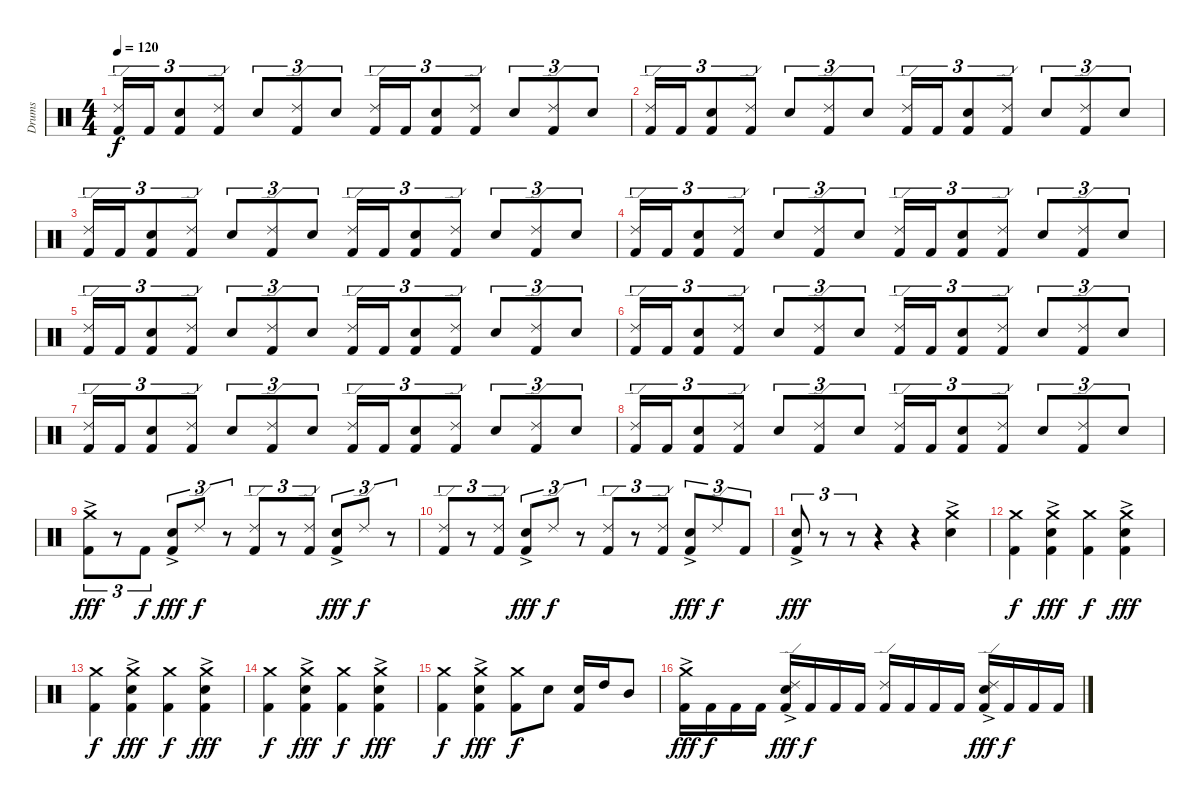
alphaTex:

\track ("Drums" "Drums") {instrument percussion}
\staff {score}
\articulation defaults
\ts (4 4)
\tempo 120
\clef neutral
\ks c
("Ride (edge) 2" "Kick (hit) 2").16{tu (3 2) dy f} "Kick (hit) 2".16{tu (3 2)} ("Electric Snare (hit)" "Kick (hit) 2").8{tu (3 2)} ("Ride (edge) 2" "Kick (hit) 2").8{tu (3 2)} "Electric Snare (hit)".8{tu (3 2)} ("Ride (edge) 2" "Kick (hit) 2").8{tu (3 2)} "Electric Snare (hit)".8{tu (3 2)} ("Ride (edge) 2" "Kick (hit) 2").16{tu (3 2)} "Kick (hit) 2".16{tu (3 2)} ("Electric Snare (hit)" "Kick (hit) 2").8{tu (3 2)} ("Ride (edge) 2" "Kick (hit) 2").8{tu (3 2)} "Electric Snare (hit)".8{tu (3 2)} ("Ride (edge) 2" "Kick (hit) 2").8{tu (3 2)} "Electric Snare (hit)".8{tu (3 2)} |
("Ride (edge) 2" "Kick (hit) 2").16{tu (3 2)} "Kick (hit) 2".16{tu (3 2)} ("Electric Snare (hit)" "Kick (hit) 2").8{tu (3 2)} ("Ride (edge) 2" "Kick (hit) 2").8{tu (3 2)} "Electric Snare (hit)".8{tu (3 2)} ("Ride (edge) 2" "Kick (hit) 2").8{tu (3 2)} "Electric Snare (hit)".8{tu (3 2)} ("Ride (edge) 2" "Kick (hit) 2").16{tu (3 2)} "Kick (hit) 2".16{tu (3 2)} ("Electric Snare (hit)" "Kick (hit) 2").8{tu (3 2)} ("Ride (edge) 2" "Kick (hit) 2").8{tu (3 2)} "Electric Snare (hit)".8{tu (3 2)} ("Ride (edge) 2" "Kick (hit) 2").8{tu (3 2)} "Electric Snare (hit)".8{tu (3 2)} |
("Ride (edge) 2" "Kick (hit) 2").16{tu (3 2)} "Kick (hit) 2".16{tu (3 2)} ("Electric Snare (hit)" "Kick (hit) 2").8{tu (3 2)} ("Ride (edge) 2" "Kick (hit) 2").8{tu (3 2)} "Electric Snare (hit)".8{tu (3 2)} ("Ride (edge) 2" "Kick (hit) 2").8{tu (3 2)} "Electric Snare (hit)".8{tu (3 2)} ("Ride (edge) 2" "Kick (hit) 2").16{tu (3 2)} "Kick (hit) 2".16{tu (3 2)} ("Electric Snare (hit)" "Kick (hit) 2").8{tu (3 2)} ("Ride (edge) 2" "Kick (hit) 2").8{tu (3 2)} "Electric Snare (hit)".8{tu (3 2)} ("Ride (edge) 2" "Kick (hit) 2").8{tu (3 2)} "Electric Snare (hit)".8{tu (3 2)} |
("Ride (edge) 2" "Kick (hit) 2").16{tu (3 2)} "Kick (hit) 2".16{tu (3 2)} ("Electric Snare (hit)" "Kick (hit) 2").8{tu (3 2)} ("Ride (edge) 2" "Kick (hit) 2").8{tu (3 2)} "Electric Snare (hit)".8{tu (3 2)} ("Ride (edge) 2" "Kick (hit) 2").8{tu (3 2)} "Electric Snare (hit)".8{tu (3 2)} ("Ride (edge) 2" "Kick (hit) 2").16{tu (3 2)} "Kick (hit) 2".16{tu (3 2)} ("Electric Snare (hit)" "Kick (hit) 2").8{tu (3 2)} ("Ride (edge) 2" "Kick (hit) 2").8{tu (3 2)} "Electric Snare (hit)".8{tu (3 2)} ("Ride (edge) 2" "Kick (hit) 2").8{tu (3 2)} "Electric Snare (hit)".8{tu (3 2)} |
("Ride (edge) 2" "Kick (hit) 2").16{tu (3 2)} "Kick (hit) 2".16{tu (3 2)} ("Electric Snare (hit)" "Kick (hit) 2").8{tu (3 2)} ("Ride (edge) 2" "Kick (hit) 2").8{tu (3 2)} "Electric Snare (hit)".8{tu (3 2)} ("Ride (edge) 2" "Kick (hit) 2").8{tu (3 2)} "Electric Snare (hit)".8{tu (3 2)} ("Ride (edge) 2" "Kick (hit) 2").16{tu (3 2)} "Kick (hit) 2".16{tu (3 2)} ("Electric Snare (hit)" "Kick (hit) 2").8{tu (3 2)} ("Ride (edge) 2" "Kick (hit) 2").8{tu (3 2)} "Electric Snare (hit)".8{tu (3 2)} ("Ride (edge) 2" "Kick (hit) 2").8{tu (3 2)} "Electric Snare (hit)".8{tu (3 2)} |
("Ride (edge) 2" "Kick (hit) 2").16{tu (3 2)} "Kick (hit) 2".16{tu (3 2)} ("Electric Snare (hit)" "Kick (hit) 2").8{tu (3 2)} ("Ride (edge) 2" "Kick (hit) 2").8{tu (3 2)} "Electric Snare (hit)".8{tu (3 2)} ("Ride (edge) 2" "Kick (hit) 2").8{tu (3 2)} "Electric Snare (hit)".8{tu (3 2)} ("Ride (edge) 2" "Kick (hit) 2").16{tu (3 2)} "Kick (hit) 2".16{tu (3 2)} ("Electric Snare (hit)" "Kick (hit) 2").8{tu (3 2)} ("Ride (edge) 2" "Kick (hit) 2").8{tu (3 2)} "Electric Snare (hit)".8{tu (3 2)} ("Ride (edge) 2" "Kick (hit) 2").8{tu (3 2)} "Electric Snare (hit)".8{tu (3 2)} |
("Ride (edge) 2" "Kick (hit) 2").16{tu (3 2)} "Kick (hit) 2".16{tu (3 2)} ("Electric Snare (hit)" "Kick (hit) 2").8{tu (3 2)} ("Ride (edge) 2" "Kick (hit) 2").8{tu (3 2)} "Electric Snare (hit)".8{tu (3 2)} ("Ride (edge) 2" "Kick (hit) 2").8{tu (3 2)} "Electric Snare (hit)".8{tu (3 2)} ("Ride (edge) 2" "Kick (hit) 2").16{tu (3 2)} "Kick (hit) 2".16{tu (3 2)} ("Electric Snare (hit)" "Kick (hit) 2").8{tu (3 2)} ("Ride (edge) 2" "Kick (hit) 2").8{tu (3 2)} "Electric Snare (hit)".8{tu (3 2)} ("Ride (edge) 2" "Kick (hit) 2").8{tu (3 2)} "Electric Snare (hit)".8{tu (3 2)} |
("Ride (edge) 2" "Kick (hit) 2").16{tu (3 2)} "Kick (hit) 2".16{tu (3 2)} ("Electric Snare (hit)" "Kick (hit) 2").8{tu (3 2)} ("Ride (edge) 2" "Kick (hit) 2").8{tu (3 2)} "Electric Snare (hit)".8{tu (3 2)} ("Ride (edge) 2" "Kick (hit) 2").8{tu (3 2)} "Electric Snare (hit)".8{tu (3 2)} ("Ride (edge) 2" "Kick (hit) 2").16{tu (3 2)} "Kick (hit) 2".16{tu (3 2)} ("Electric Snare (hit)" "Kick (hit) 2").8{tu (3 2)} ("Ride (edge) 2" "Kick (hit) 2").8{tu (3 2)} "Electric Snare (hit)".8{tu (3 2)} ("Ride (edge) 2" "Kick (hit) 2").8{tu (3 2)} "Electric Snare (hit)".8{tu (3 2)} |
("Crash medium (hit)"{ac} "Kick (hit) 2").8{tu (3 2) dy fff} r.8{tu (3 2)} "Kick (hit) 2".8{tu (3 2) dy f} ("Electric Snare (hit)"{ac} "Kick (hit) 2").8{tu (3 2) dy fff} "Ride (edge) 2".8{tu (3 2) dy f} r.8{tu (3 2)} ("Ride (edge) 2" "Kick (hit) 2").8{tu (3 2)} r.8{tu (3 2)} ("Ride (edge) 2" "Kick (hit) 2").8{tu (3 2)} ("Electric Snare (hit)"{ac} "Kick (hit) 2").8{tu (3 2) dy fff} "Ride (edge) 2".8{tu (3 2) dy f} r.8{tu (3 2)} |
("Ride (edge) 2" "Kick (hit) 2").8{tu (3 2)} r.8{tu (3 2)} ("Ride (edge) 2" "Kick (hit) 2").8{tu (3 2)} ("Electric Snare (hit)"{ac} "Kick (hit) 2").8{tu (3 2) dy fff} "Ride (edge) 2".8{tu (3 2) dy f} r.8{tu (3 2)} ("Ride (edge) 2" "Kick (hit) 2").8{tu (3 2)} r.8{tu (3 2)} ("Ride (edge) 2" "Kick (hit) 2").8{tu (3 2)} ("Electric Snare (hit)"{ac} "Kick (hit) 2").8{tu (3 2) dy fff} "Ride (edge) 2".8{tu (3 2) dy f} "Kick (hit) 2".8{tu (3 2)} |
("Electric Snare (hit)"{ac} "Kick (hit) 2").8{tu (3 2) dy fff} r.8{tu (3 2)} r.8{tu (3 2)} r.4 r.4 ("Crash medium (hit)"{ac} "Electric Snare (hit)"{ac}).4 |
("Crash medium (hit)" "Kick (hit) 2").4{dy f} ("Crash medium (hit)" "Electric Snare (hit)"{ac} "Kick (hit) 2").4{dy fff} ("Crash medium (hit)" "Kick (hit) 2").4{dy f} ("Crash medium (hit)" "Electric Snare (hit)"{ac} "Kick (hit) 2").4{dy fff} |
("Crash medium (hit)" "Kick (hit) 2").4{dy f} ("Crash medium (hit)" "Electric Snare (hit)"{ac} "Kick (hit) 2").4{dy fff} ("Crash medium (hit)" "Kick (hit) 2").4{dy f} ("Crash medium (hit)" "Electric Snare (hit)"{ac} "Kick (hit) 2").4{dy fff} |
("Crash medium (hit)" "Kick (hit) 2").4{dy f} ("Crash medium (hit)" "Electric Snare (hit)"{ac} "Kick (hit) 2").4{dy fff} ("Crash medium (hit)" "Kick (hit) 2").4{dy f} ("Crash medium (hit)" "Electric Snare (hit)"{ac} "Kick (hit) 2").4{dy fff} |
("Crash medium (hit)" "Kick (hit) 2").4{dy f} ("Crash medium (hit)" "Electric Snare (hit)"{ac} "Kick (hit) 2").4{dy fff} ("Crash medium (hit)" "Kick (hit) 2").8{dy f} "Electric Snare (hit)".8 ("Electric Snare (hit)" "Kick (hit) 2").16 "High Tom (hit)".16 "Mid Tom (hit)".8 |
("Crash medium (hit)"{ac} "Kick (hit) 2").16{dy fff} "Kick (hit) 2".16{dy f} "Kick (hit) 2".16 "Kick (hit) 2".16 ("Ride (edge) 2" "Electric Snare (hit)"{ac} "Kick (hit) 2").16{dy fff} "Kick (hit) 2".16{dy f} "Kick (hit) 2".16 "Kick (hit) 2".16 ("Ride (edge) 2" "Kick (hit) 2").16 "Kick (hit) 2".16 "Kick (hit) 2".16 "Kick (hit) 2".16 ("Ride (edge) 2" "Electric Snare (hit)"{ac} "Kick (hit) 2").16{dy fff} "Kick (hit) 2".16{dy f} "Kick (hit) 2".16 "Kick (hit) 2".16
